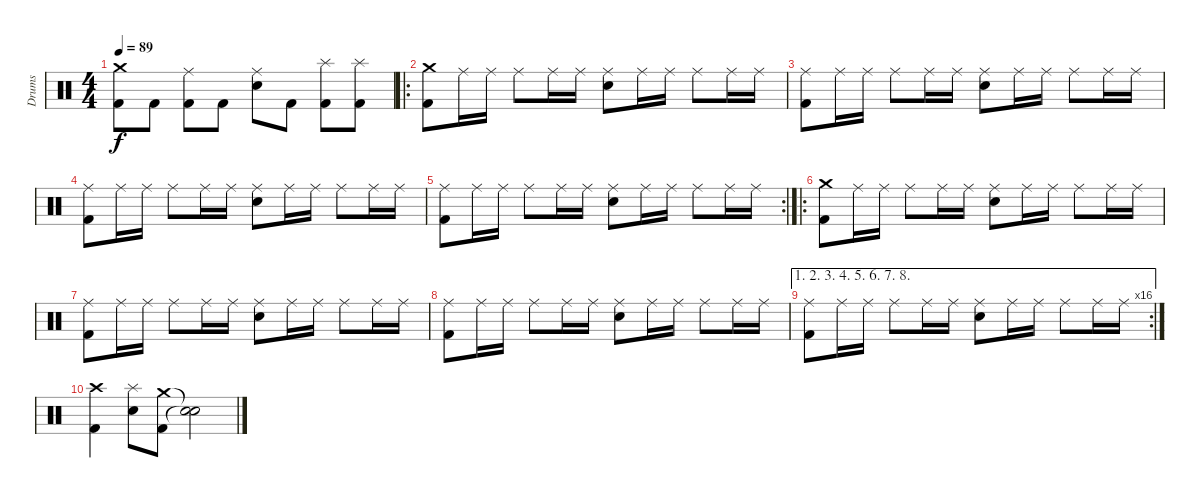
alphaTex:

\track ("Drums" "Drums") {instrument percussion}
\staff {score}
\articulation defaults
\ts (4 4)
\tempo 89
\clef neutral
\ks c
("Crash medium (hit)" "Kick (hit) 2").8{dy f} "Kick (hit) 2".8 ("Ride (middle)" "Kick (hit) 2").8 "Kick (hit) 2".8 ("Ride (middle)" "Snare (hit) 2").8 "Kick (hit) 2".8 ("Splash (hit)" "Kick (hit) 2").8 ("Splash (hit)" "Kick (hit) 2").8 |
\ro
("Crash medium (hit)" "Kick (hit) 2").8 "Ride (middle)".16 "Ride (middle)".16 "Ride (middle)".8 "Ride (middle)".16 "Ride (middle)".16 ("Ride (middle)" "Snare (hit) 2").8 "Ride (middle)".16 "Ride (middle)".16 "Ride (middle)".8 "Ride (middle)".16 "Ride (middle)".16 |
("Ride (middle)" "Kick (hit) 2").8 "Ride (middle)".16 "Ride (middle)".16 "Ride (middle)".8 "Ride (middle)".16 "Ride (middle)".16 ("Ride (middle)" "Snare (hit) 2").8 "Ride (middle)".16 "Ride (middle)".16 "Ride (middle)".8 "Ride (middle)".16 "Ride (middle)".16 |
("Ride (middle)" "Kick (hit) 2").8 "Ride (middle)".16 "Ride (middle)".16 "Ride (middle)".8 "Ride (middle)".16 "Ride (middle)".16 ("Ride (middle)" "Snare (hit) 2").8 "Ride (middle)".16 "Ride (middle)".16 "Ride (middle)".8 "Ride (middle)".16 "Ride (middle)".16 |
\rc 2
("Ride (middle)" "Kick (hit) 2").8 "Ride (middle)".16 "Ride (middle)".16 "Ride (middle)".8 "Ride (middle)".16 "Ride (middle)".16 ("Ride (middle)" "Snare (hit) 2").8 "Ride (middle)".16 "Ride (middle)".16 "Ride (middle)".8 "Ride (middle)".16 "Ride (middle)".16 |
\ro
("Crash medium (hit)" "Kick (hit) 2").8 "Ride (middle)".16 "Ride (middle)".16 "Ride (middle)".8 "Ride (middle)".16 "Ride (middle)".16 ("Ride (middle)" "Snare (hit) 2").8 "Ride (middle)".16 "Ride (middle)".16 "Ride (middle)".8 "Ride (middle)".16 "Ride (middle)".16 |
("Ride (middle)" "Kick (hit) 2").8 "Ride (middle)".16 "Ride (middle)".16 "Ride (middle)".8 "Ride (middle)".16 "Ride (middle)".16 ("Ride (middle)" "Snare (hit) 2").8 "Ride (middle)".16 "Ride (middle)".16 "Ride (middle)".8 "Ride (middle)".16 "Ride (middle)".16 |
("Ride (middle)" "Kick (hit) 2").8 "Ride (middle)".16 "Ride (middle)".16 "Ride (middle)".8 "Ride (middle)".16 "Ride (middle)".16 ("Ride (middle)" "Snare (hit) 2").8 "Ride (middle)".16 "Ride (middle)".16 "Ride (middle)".8 "Ride (middle)".16 "Ride (middle)".16 |
\ae (1 2 3 4 5 6 7 8)
\rc 16
("Ride (middle)" "Kick (hit) 2").8 "Ride (middle)".16 "Ride (middle)".16 "Ride (middle)".8 "Ride (middle)".16 "Ride (middle)".16 ("Ride (middle)" "Snare (hit) 2").8 "Ride (middle)".16 "Ride (middle)".16 "Ride (middle)".8 "Ride (middle)".16 "Ride (middle)".16 |
("Crash high (hit)" "Kick (hit) 2").4 ("Splash (hit)" "Snare (hit) 2").8 ("Crash medium (hit)" "Kick (hit) 2").8 ("Snare (hit)"{t} "Snare (hit)"{t}).2
